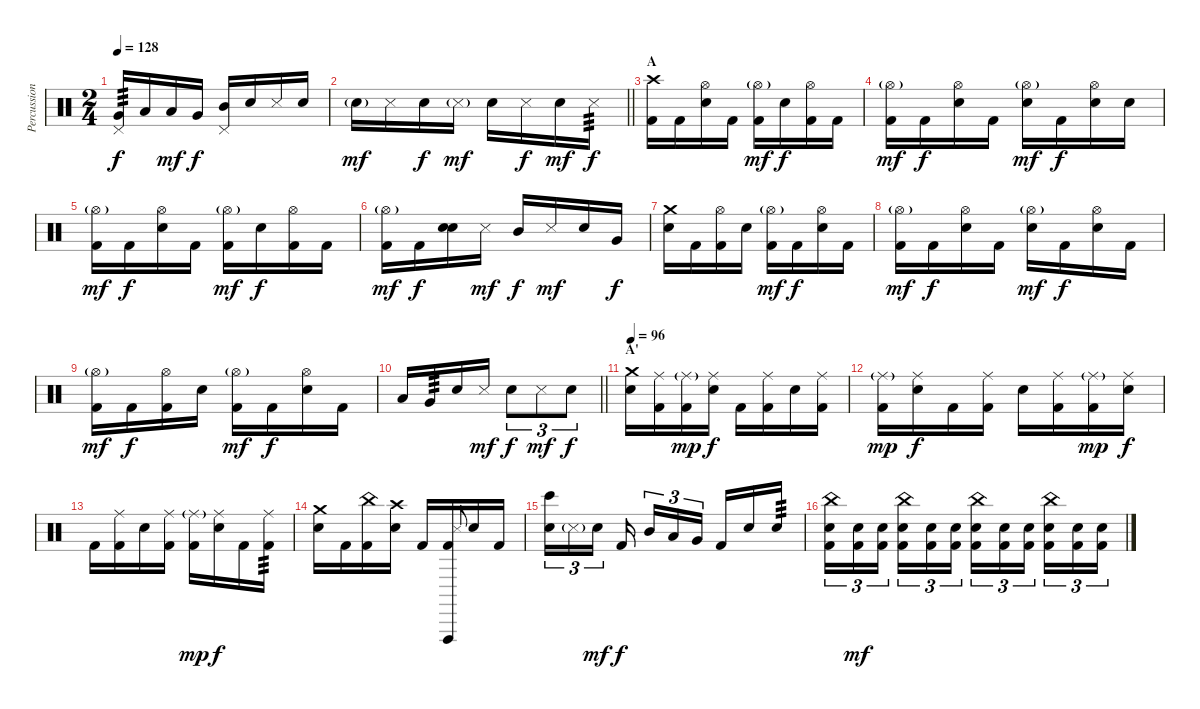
\track ("Percussion" "Percussion") {instrument percussion}
\staff {score}
\articulation defaults
\ts (2 4)
\tempo 128
\clef neutral
\ks c
("Pedal Hi-Hat (hit)" "Very Low Tom (hit)").16{tp 3 dy f} "Low Tom (hit)".16 "Low Tom (hit)".16{dy mf} "Very Low Tom (hit)".16{dy f} ("Pedal Hi-Hat (hit)" "Mid Tom (hit)").16 "Snare (hit) 2".16 "Metronome (hit)".16 "Snare (hit) 2".16 |
\barLineRight lightlight "Snare (hit) 2"{g}.16{dy mf} "Metronome (hit)".16 "Snare (hit) 2".16{dy f} "Metronome (hit)"{g}.16{dy mf} "Snare (hit) 2".16 "Metronome (hit)".16{dy f} "Snare (hit) 2".16{dy mf} "Metronome (hit)".16{tp 3 dy f}
|
\section ("" "A")
("Crash high (hit)" "Kick (hit) 2").16 "Kick (hit) 2".16 ("Hi-Hat (open)" "Snare (hit) 2").16 "Kick (hit) 2".16 ("Hi-Hat (open)"{g} "Kick (hit) 2").16{dy mf} "Snare (hit) 2".16{dy f} ("Hi-Hat (open)" "Kick (hit) 2").16 "Kick (hit) 2".16 |
("Hi-Hat (open)"{g} "Kick (hit) 2").16{dy mf} "Kick (hit) 2".16{dy f} ("Hi-Hat (open)" "Snare (hit) 2").16 "Kick (hit) 2".16 ("Hi-Hat (open)"{g} "Snare (hit) 2").16{dy mf} "Kick (hit) 2".16{dy f} ("Hi-Hat (open)" "Snare (hit) 2").16 "Snare (hit) 2".16 |
("Hi-Hat (open)"{g} "Kick (hit) 2").16{dy mf} "Kick (hit) 2".16{dy f} ("Hi-Hat (open)" "Snare (hit) 2").16 "Kick (hit) 2".16 ("Hi-Hat (open)"{g} "Kick (hit) 2").16{dy mf} "Snare (hit) 2".16{dy f} ("Hi-Hat (open)" "Kick (hit) 2").16 "Kick (hit) 2".16 |
("Hi-Hat (open)"{g} "Kick (hit) 2").16{dy mf} "Kick (hit) 2".16{dy f} ("Snare (hit)" "Snare (hit) 2").16 "Metronome (hit)".16{dy mf} "Mid Tom (hit)".16{dy f} "Metronome (hit)".16{dy mf} "Snare (hit) 2".16 "Very Low Tom (hit)".16{dy f} |
("Crash medium (hit)" "Snare (hit) 2").16 "Kick (hit) 2".16 ("Hi-Hat (open)" "Kick (hit) 2").16 "Snare (hit) 2".16 ("Hi-Hat (open)"{g} "Kick (hit) 2").16{dy mf} "Kick (hit) 2".16{dy f} ("Hi-Hat (open)" "Snare (hit) 2").16 "Kick (hit) 2".16 |
("Hi-Hat (open)"{g} "Kick (hit) 2").16{dy mf} "Kick (hit) 2".16{dy f} ("Hi-Hat (open)" "Snare (hit) 2").16 "Kick (hit) 2".16 ("Hi-Hat (open)"{g} "Snare (hit) 2").16{dy mf} "Kick (hit) 2".16{dy f} ("Hi-Hat (open)" "Snare (hit) 2").16 "Kick (hit) 2".16 |
("Hi-Hat (open)"{g} "Kick (hit) 2").16{dy mf} "Kick (hit) 2".16{dy f} ("Hi-Hat (open)" "Kick (hit) 2").16 "Snare (hit) 2".16 ("Hi-Hat (open)"{g} "Kick (hit) 2").16{dy mf} "Kick (hit) 2".16{dy f} ("Hi-Hat (open)" "Snare (hit) 2").16 "Kick (hit) 2".16 |
\barLineRight lightlight "Low Tom (hit)".16 "Very Low Tom (hit)".16{tp 3} "Snare (hit) 2".16 "Metronome (hit)".16{dy mf} "Snare (hit) 2".8{tu (3 2) dy f} "Metronome (hit)".8{tu (3 2) dy mf} "Snare (hit) 2".8{tu (3 2) dy f}
|
\section ("" "A'")
\tempo 96
("Crash medium (hit)" "Snare (hit) 2").16 ("Ride (middle)" "Kick (hit) 2").16 ("Ride (middle)"{g} "Kick (hit) 2").16{dy mp} ("Ride (middle)" "Snare (hit) 2").16{dy f} "Kick (hit) 2".16 ("Ride (middle)" "Kick (hit) 2").16 "Snare (hit) 2".16 ("Ride (middle)" "Kick (hit) 2").16 |
("Ride (middle)"{g} "Kick (hit) 2").16{dy mp} ("Ride (middle)" "Snare (hit) 2").16{dy f} "Kick (hit) 2".16 ("Ride (middle)" "Kick (hit) 2").16 "Snare (hit) 2".16 ("Ride (middle)" "Kick (hit) 2").16 ("Ride (middle)"{g} "Kick (hit) 2").16{dy mp} ("Ride (middle)" "Snare (hit) 2").16{dy f} |
"Kick (hit) 2".16 ("Ride (middle)" "Kick (hit) 2").16 "Snare (hit) 2".16 ("Ride (middle)" "Kick (hit) 2").16 ("Ride (middle)"{g} "Kick (hit) 2").16{dy mp} ("Ride (middle)" "Snare (hit) 2").16{dy f} "Kick (hit) 2".16 ("Ride (middle)" "Kick (hit) 2").16{tp 3} |
("Crash medium (hit)" "Snare (hit) 2").16 "Kick (hit) 2".16 ("China (hit)" "Kick (hit) 2").16 ("Crash high (hit)" "Snare (hit) 2").16 "Kick (hit) 2".16 ("Vibraslap (hit)" "Kick (hit) 2").16 "Metronome (hit)".8{gr onbeat} "Snare (hit) 2".16 "Kick (hit) 2".16 |
("Bongo High (hit)" "Snare (hit) 2").16{tu (3 2)} "Metronome (hit)"{g}.16{tu (3 2)} "Snare (hit) 2".16{tu (3 2) dy mf beam splitsecondary} "Kick (hit) 2".16{dy f beam splitsecondary} "Mid Tom (hit)".16{tu (3 2)} "Low Tom (hit)".16{tu (3 2)} "Very Low Tom (hit)".16{tu (3 2) beam splitsecondary} "Kick (hit) 2".16 "Snare (hit) 2".16 "Snare (hit) 2".16{tp 3} |
("China (hit)" "Snare (hit) 2" "Kick (hit) 2").16{tu (3 2)} ("Snare (hit) 2" "Kick (hit) 2").16{tu (3 2) dy mf} ("Snare (hit) 2" "Kick (hit) 2").16{tu (3 2) beam splitsecondary} ("China (hit)" "Snare (hit) 2" "Kick (hit) 2").16{tu (3 2)} ("Snare (hit) 2" "Kick (hit) 2").16{tu (3 2)} ("Snare (hit) 2" "Kick (hit) 2").16{tu (3 2)} ("China (hit)" "Snare (hit) 2" "Kick (hit) 2").16{tu (3 2)} ("Snare (hit) 2" "Kick (hit) 2").16{tu (3 2)} ("Snare (hit) 2" "Kick (hit) 2").16{tu (3 2) beam splitsecondary} ("China (hit)" "Snare (hit) 2" "Kick (hit) 2").16{tu (3 2)} ("Snare (hit) 2" "Kick (hit) 2").16{tu (3 2)} ("Snare (hit) 2" "Kick (hit) 2").16{tu (3 2)}
